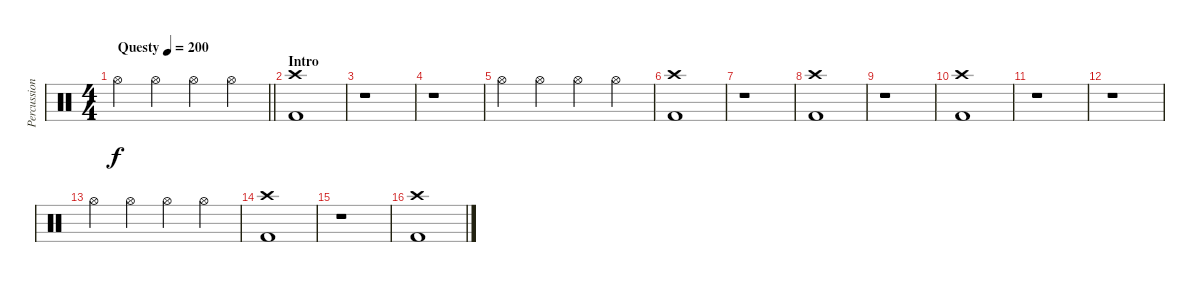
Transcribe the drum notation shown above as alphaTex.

\track ("Percussion" "Percussion") {instrument percussion}
\staff {score}
\articulation defaults
\ts (4 4)
\tempo (200 "Questy")
\clef neutral
\barLineRight lightlight
\ks c "Hi-Hat (open)".4{dy f} "Hi-Hat (open)".4 "Hi-Hat (open)".4 "Hi-Hat (open)".4
|
\section ("" "Intro")
("Crash high (hit)" "Kick (hit) 2").1 |
r.1 |
r.1 |
"Hi-Hat (open)".4 "Hi-Hat (open)".4 "Hi-Hat (open)".4 "Hi-Hat (open)".4 |
("Crash high (hit)" "Kick (hit) 2").1 |
r.1 |
("Crash high (hit)" "Kick (hit) 2").1 |
r.1 |
("Crash high (hit)" "Kick (hit) 2").1 |
r.1 |
r.1 |
"Hi-Hat (open)".4 "Hi-Hat (open)".4 "Hi-Hat (open)".4 "Hi-Hat (open)".4 |
("Crash high (hit)" "Kick (hit) 2").1 |
r.1 |
("Crash high (hit)" "Kick (hit) 2").1
